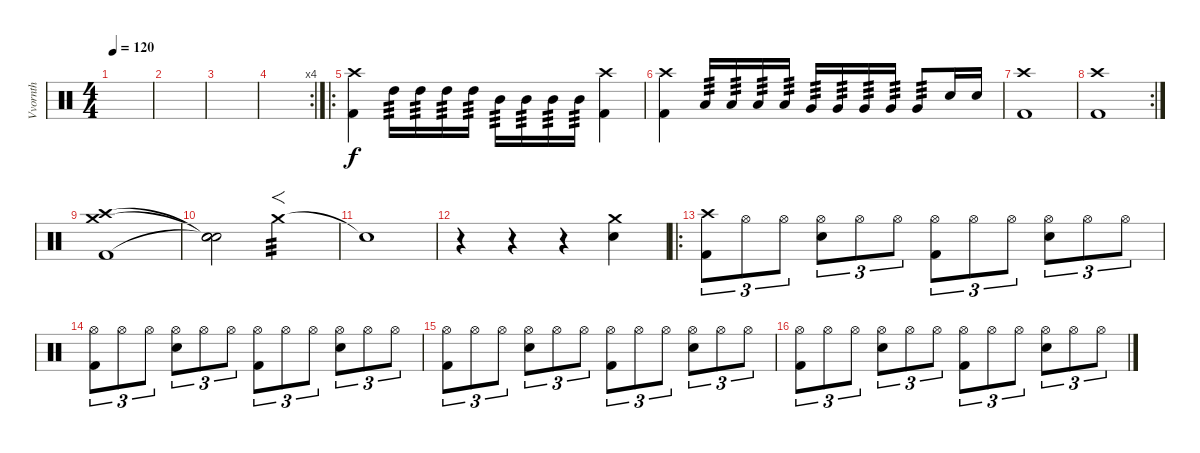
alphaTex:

\track ("Vvornth" "Vvornth") {instrument percussion}
\staff {score}
\articulation defaults
\ts (4 4)
\tempo 120
\clef neutral
\ks c
|
|
|
\rc 4
|
\ro
("Crash high (hit)" "Kick (hit) 2").4 "High Tom (hit)".16{tp 3} "High Tom (hit)".16{tp 3} "High Tom (hit)".16{tp 3} "High Tom (hit)".16{tp 3} "Mid Tom (hit)".16{tp 3} "Mid Tom (hit)".16{tp 3} "Mid Tom (hit)".16{tp 3} "Mid Tom (hit)".16{tp 3} ("Crash high (hit)" "Kick (hit) 2").4 |
("Crash high (hit)" "Kick (hit) 2").4 "Low Tom (hit)".16{tp 3} "Low Tom (hit)".16{tp 3} "Low Tom (hit)".16{tp 3} "Low Tom (hit)".16{tp 3} "Very Low Tom (hit)".16{tp 3} "Very Low Tom (hit)".16{tp 3} "Very Low Tom (hit)".16{tp 3} "Very Low Tom (hit)".16{tp 3} "Very Low Tom (hit)".8{tp 3} "Snare (hit) 2".16 "Snare (hit) 2".16 |
("Crash high (hit)" "Kick (hit) 2").1 |
\rc 2
("Crash high (hit)" "Kick (hit) 2").1 |
("Crash high (hit)" "Crash medium (hit)" "Kick (hit) 2").1 |
("Snare (hit)"{t} "Snare (hit)"{t} "Snare (hit)"{t}).2 "Crash medium (hit)".2{f tp 3} |
"Snare (hit)"{t}.1 |
r.4 r.4 r.4 ("Crash medium (hit)" "Snare (hit) 2").4 |
\ro
("Crash high (hit)" "Kick (hit) 2").8{tu (3 2)} "Hi-Hat (open)".8{tu (3 2)} "Hi-Hat (open)".8{tu (3 2)} ("Hi-Hat (open)" "Snare (hit) 2").8{tu (3 2)} "Hi-Hat (open)".8{tu (3 2)} "Hi-Hat (open)".8{tu (3 2)} ("Hi-Hat (open)" "Kick (hit) 2").8{tu (3 2)} "Hi-Hat (open)".8{tu (3 2)} "Hi-Hat (open)".8{tu (3 2)} ("Hi-Hat (open)" "Snare (hit) 2").8{tu (3 2)} "Hi-Hat (open)".8{tu (3 2)} "Hi-Hat (open)".8{tu (3 2)} |
("Hi-Hat (open)" "Kick (hit) 2").8{tu (3 2)} "Hi-Hat (open)".8{tu (3 2)} "Hi-Hat (open)".8{tu (3 2)} ("Hi-Hat (open)" "Snare (hit) 2").8{tu (3 2)} "Hi-Hat (open)".8{tu (3 2)} "Hi-Hat (open)".8{tu (3 2)} ("Hi-Hat (open)" "Kick (hit) 2").8{tu (3 2)} "Hi-Hat (open)".8{tu (3 2)} "Hi-Hat (open)".8{tu (3 2)} ("Hi-Hat (open)" "Snare (hit) 2").8{tu (3 2)} "Hi-Hat (open)".8{tu (3 2)} "Hi-Hat (open)".8{tu (3 2)} |
("Hi-Hat (open)" "Kick (hit) 2").8{tu (3 2)} "Hi-Hat (open)".8{tu (3 2)} "Hi-Hat (open)".8{tu (3 2)} ("Hi-Hat (open)" "Snare (hit) 2").8{tu (3 2)} "Hi-Hat (open)".8{tu (3 2)} "Hi-Hat (open)".8{tu (3 2)} ("Hi-Hat (open)" "Kick (hit) 2").8{tu (3 2)} "Hi-Hat (open)".8{tu (3 2)} "Hi-Hat (open)".8{tu (3 2)} ("Hi-Hat (open)" "Snare (hit) 2").8{tu (3 2)} "Hi-Hat (open)".8{tu (3 2)} "Hi-Hat (open)".8{tu (3 2)} |
("Hi-Hat (open)" "Kick (hit) 2").8{tu (3 2)} "Hi-Hat (open)".8{tu (3 2)} "Hi-Hat (open)".8{tu (3 2)} ("Hi-Hat (open)" "Snare (hit) 2").8{tu (3 2)} "Hi-Hat (open)".8{tu (3 2)} "Hi-Hat (open)".8{tu (3 2)} ("Hi-Hat (open)" "Kick (hit) 2").8{tu (3 2)} "Hi-Hat (open)".8{tu (3 2)} "Hi-Hat (open)".8{tu (3 2)} ("Hi-Hat (open)" "Snare (hit) 2").8{tu (3 2)} "Hi-Hat (open)".8{tu (3 2)} "Hi-Hat (open)".8{tu (3 2)}
